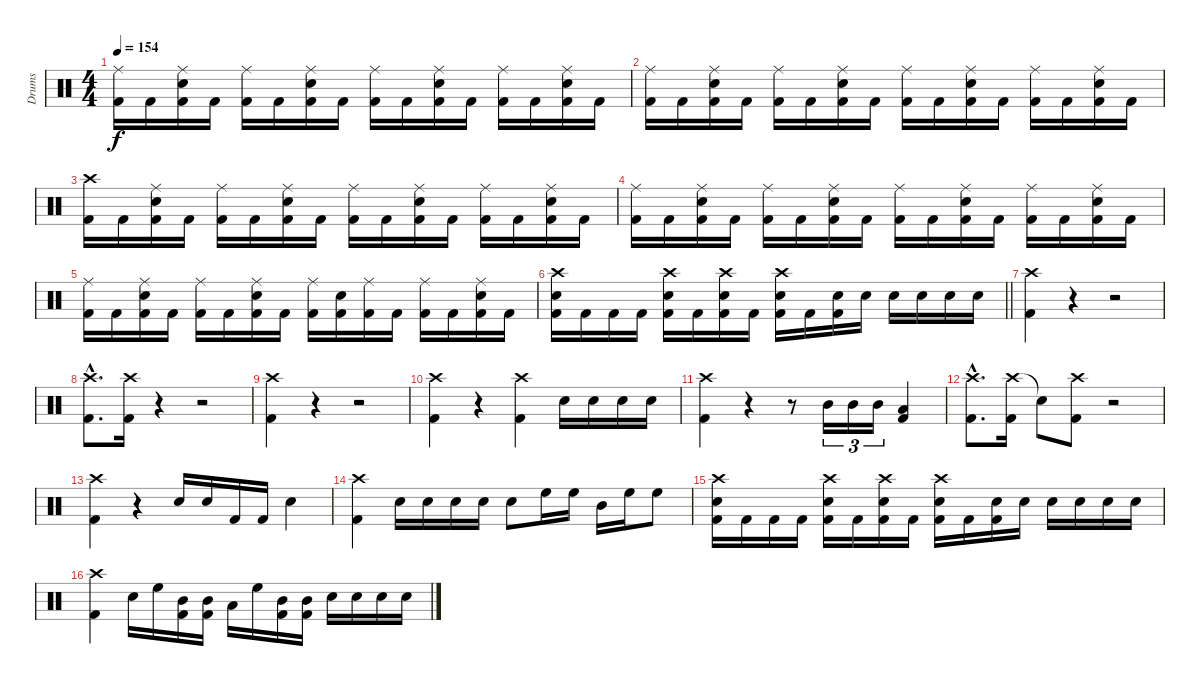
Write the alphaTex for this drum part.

\track ("Drums" "Drums") {instrument percussion}
\staff {score}
\articulation defaults
\ts (4 4)
\tempo 154
\clef neutral
\ks c
("Ride (middle)" "Kick (hit) 2").16{dy f} "Kick (hit) 2".16 ("Ride (middle)" "Snare (hit) 2" "Kick (hit) 2").16 "Kick (hit) 2".16 ("Ride (middle)" "Kick (hit) 2").16 "Kick (hit) 2".16 ("Ride (middle)" "Snare (hit) 2" "Kick (hit) 2").16 "Kick (hit) 2".16 ("Ride (middle)" "Kick (hit) 2").16 "Kick (hit) 2".16 ("Ride (middle)" "Snare (hit) 2" "Kick (hit) 2").16 "Kick (hit) 2".16 ("Ride (middle)" "Kick (hit) 2").16 "Kick (hit) 2".16 ("Ride (middle)" "Snare (hit) 2" "Kick (hit) 2").16 "Kick (hit) 2".16 |
("Ride (middle)" "Kick (hit) 2").16 "Kick (hit) 2".16 ("Ride (middle)" "Snare (hit) 2" "Kick (hit) 2").16 "Kick (hit) 2".16 ("Ride (middle)" "Kick (hit) 2").16 "Kick (hit) 2".16 ("Ride (middle)" "Snare (hit) 2" "Kick (hit) 2").16 "Kick (hit) 2".16 ("Ride (middle)" "Kick (hit) 2").16 "Kick (hit) 2".16 ("Ride (middle)" "Snare (hit) 2" "Kick (hit) 2").16 "Kick (hit) 2".16 ("Ride (middle)" "Kick (hit) 2").16 "Kick (hit) 2".16 ("Ride (middle)" "Snare (hit) 2" "Kick (hit) 2").16 "Kick (hit) 2".16 |
("Crash high (hit)" "Kick (hit) 2").16 "Kick (hit) 2".16 ("Ride (middle)" "Snare (hit) 2" "Kick (hit) 2").16 "Kick (hit) 2".16 ("Ride (middle)" "Kick (hit) 2").16 "Kick (hit) 2".16 ("Ride (middle)" "Snare (hit) 2" "Kick (hit) 2").16 "Kick (hit) 2".16 ("Ride (middle)" "Kick (hit) 2").16 "Kick (hit) 2".16 ("Ride (middle)" "Snare (hit) 2" "Kick (hit) 2").16 "Kick (hit) 2".16 ("Ride (middle)" "Kick (hit) 2").16 "Kick (hit) 2".16 ("Ride (middle)" "Snare (hit) 2" "Kick (hit) 2").16 "Kick (hit) 2".16 |
("Ride (middle)" "Kick (hit) 2").16 "Kick (hit) 2".16 ("Ride (middle)" "Snare (hit) 2" "Kick (hit) 2").16 "Kick (hit) 2".16 ("Ride (middle)" "Kick (hit) 2").16 "Kick (hit) 2".16 ("Ride (middle)" "Snare (hit) 2" "Kick (hit) 2").16 "Kick (hit) 2".16 ("Ride (middle)" "Kick (hit) 2").16 "Kick (hit) 2".16 ("Ride (middle)" "Snare (hit) 2" "Kick (hit) 2").16 "Kick (hit) 2".16 ("Ride (middle)" "Kick (hit) 2").16 "Kick (hit) 2".16 ("Ride (middle)" "Snare (hit) 2" "Kick (hit) 2").16 "Kick (hit) 2".16 |
("Ride (middle)" "Kick (hit) 2").16 "Kick (hit) 2".16 ("Ride (middle)" "Snare (hit) 2" "Kick (hit) 2").16 "Kick (hit) 2".16 ("Ride (middle)" "Kick (hit) 2").16 "Kick (hit) 2".16 ("Ride (middle)" "Snare (hit) 2" "Kick (hit) 2").16 "Kick (hit) 2".16 ("Ride (middle)" "Kick (hit) 2").16 ("Snare (hit) 2" "Kick (hit) 2").16 ("Ride (middle)" "Kick (hit) 2").16 "Kick (hit) 2".16 ("Ride (middle)" "Kick (hit) 2").16 "Kick (hit) 2".16 ("Ride (middle)" "Snare (hit) 2" "Kick (hit) 2").16 "Kick (hit) 2".16 |
\barLineRight lightlight
("Crash high (hit)" "Snare (hit) 2" "Kick (hit) 2").16 "Kick (hit) 2".16 "Kick (hit) 2".16 "Kick (hit) 2".16 ("Crash high (hit)" "Snare (hit) 2" "Kick (hit) 2").16 "Kick (hit) 2".16 ("Crash high (hit)" "Snare (hit) 2" "Kick (hit) 2").16 "Kick (hit) 2".16 ("Crash high (hit)" "Snare (hit) 2" "Kick (hit) 2").16 "Kick (hit) 2".16 ("Snare (hit) 2" "Kick (hit) 2").16 "Snare (hit) 2".16 "Snare (hit) 2".16 "Snare (hit) 2".16 "Snare (hit) 2".16 "Snare (hit) 2".16 |
("Crash high (hit)" "Kick (hit) 2").4 r.4 r.2 |
("Crash high (hit)"{hac} "Kick (hit) 2"{hac}).8{d} ("Crash high (hit)" "Kick (hit) 2").16 r.4 r.2 |
("Crash high (hit)" "Kick (hit) 2").4 r.4 r.2 |
("Crash high (hit)" "Kick (hit) 2").4 r.4 ("Crash high (hit)" "Kick (hit) 2").4 "Snare (hit) 2".16 "Snare (hit) 2".16 "Snare (hit) 2".16 "Snare (hit) 2".16 |
("Crash high (hit)" "Kick (hit) 2").4 r.4 r.8 "Mid Tom (hit)".16{tu (3 2)} "Mid Tom (hit)".16{tu (3 2)} "Mid Tom (hit)".16{tu (3 2)} ("Low Floor Tom (hit)" "Kick (hit) 2").4 |
("Crash high (hit)"{hac} "Kick (hit) 2"{hac}).8{d} ("Crash high (hit)" "Kick (hit) 2").16 "Snare (hit)"{t}.8 ("Crash high (hit)" "Kick (hit) 2").8 r.2 |
("Crash high (hit)" "Kick (hit) 2").4 r.4 "Snare (hit) 2".16 "Snare (hit) 2".16 "Kick (hit) 2".16 "Kick (hit) 2".16 "Snare (hit) 2".4 |
("Crash high (hit)" "Kick (hit) 2").4 "Snare (hit) 2".16 "Snare (hit) 2".16 "Snare (hit) 2".16 "Snare (hit) 2".16 "Snare (hit) 2".8 "High Floor Tom (hit)".16 "High Floor Tom (hit)".16 "Mid Tom (hit)".16 "High Floor Tom (hit)".16 "High Floor Tom (hit)".8 |
("Crash high (hit)" "Snare (hit) 2" "Kick (hit) 2").16 "Kick (hit) 2".16 "Kick (hit) 2".16 "Kick (hit) 2".16 ("Crash high (hit)" "Snare (hit) 2" "Kick (hit) 2").16 "Kick (hit) 2".16 ("Crash high (hit)" "Snare (hit) 2" "Kick (hit) 2").16 "Kick (hit) 2".16 ("Crash high (hit)" "Snare (hit) 2" "Kick (hit) 2").16 "Kick (hit) 2".16 ("Snare (hit) 2" "Kick (hit) 2").16 "Snare (hit) 2".16 "Snare (hit) 2".16 "Snare (hit) 2".16 "Snare (hit) 2".16 "Snare (hit) 2".16 |
("Crash high (hit)" "Kick (hit) 2").4 "Snare (hit) 2".16 "High Floor Tom (hit)".16 ("Mid Tom (hit)" "Kick (hit) 2").16 ("Mid Tom (hit)" "Kick (hit) 2").16 "Low Floor Tom (hit)".16 "High Floor Tom (hit)".16 ("Mid Tom (hit)" "Kick (hit) 2").16 ("Mid Tom (hit)" "Kick (hit) 2").16 "Snare (hit) 2".16 "Snare (hit) 2".16 "Snare (hit) 2".16 "Snare (hit) 2".16
